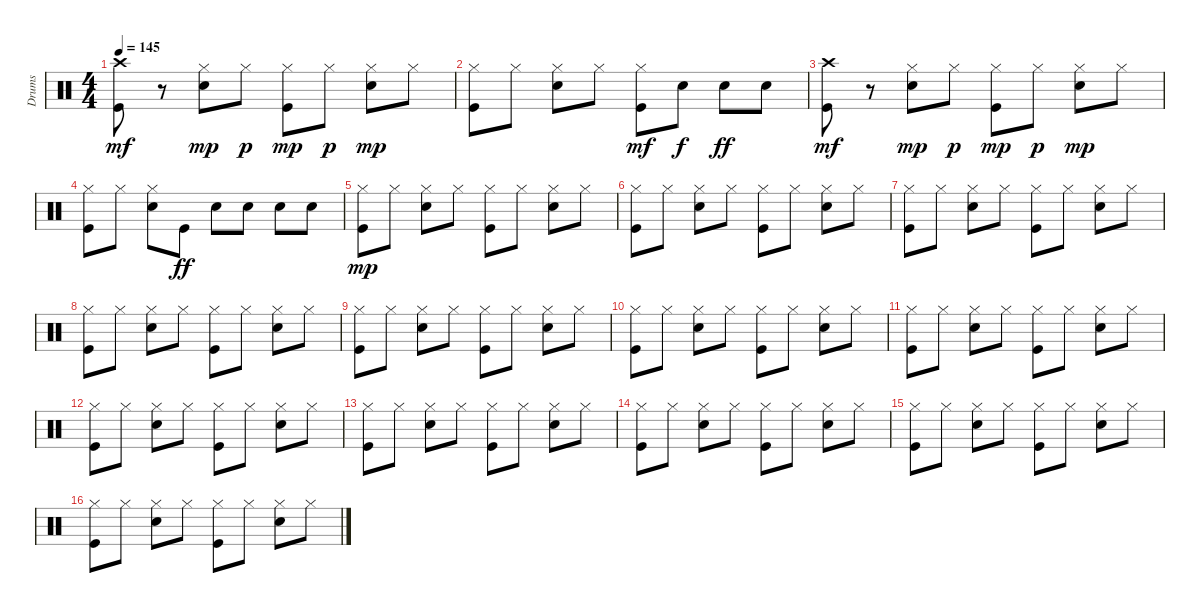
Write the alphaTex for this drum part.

\track ("Drums" "Drums") {instrument percussion}
\staff {score}
\articulation defaults
\ts (4 4)
\tempo 145
\clef neutral
\ks c
("Kick (hit)" "Crash high (hit)").8{dy mf} r.8 ("Snare (hit) 2" "Hi-Hat (closed)").8{dy mp} "Hi-Hat (closed)".8{dy p} ("Kick (hit)" "Hi-Hat (closed)").8{dy mp} "Hi-Hat (closed)".8{dy p} ("Snare (hit) 2" "Hi-Hat (closed)").8{dy mp} "Hi-Hat (closed)".8 |
("Kick (hit)" "Hi-Hat (closed)").8 "Hi-Hat (closed)".8 ("Snare (hit) 2" "Hi-Hat (closed)").8 "Hi-Hat (closed)".8 ("Kick (hit)" "Hi-Hat (closed)").8{dy mf} "Snare (hit) 2".8{dy f} "Snare (hit) 2".8{dy ff} "Snare (hit) 2".8 |
("Kick (hit)" "Crash high (hit)").8{dy mf} r.8 ("Snare (hit) 2" "Hi-Hat (closed)").8{dy mp} "Hi-Hat (closed)".8{dy p} ("Kick (hit)" "Hi-Hat (closed)").8{dy mp} "Hi-Hat (closed)".8{dy p} ("Snare (hit) 2" "Hi-Hat (closed)").8{dy mp} "Hi-Hat (closed)".8 |
("Kick (hit)" "Hi-Hat (closed)").8 "Hi-Hat (closed)".8 ("Snare (hit) 2" "Hi-Hat (closed)").8 "Kick (hit)".8{dy ff} "Snare (hit) 2".8 "Snare (hit) 2".8 "Snare (hit) 2".8 "Snare (hit) 2".8 |
("Kick (hit)" "Hi-Hat (closed)").8{dy mp} "Hi-Hat (closed)".8 ("Snare (hit) 2" "Hi-Hat (closed)").8 "Hi-Hat (closed)".8 ("Kick (hit)" "Hi-Hat (closed)").8 "Hi-Hat (closed)".8 ("Snare (hit) 2" "Hi-Hat (closed)").8 "Hi-Hat (closed)".8 |
("Kick (hit)" "Hi-Hat (closed)").8 "Hi-Hat (closed)".8 ("Snare (hit) 2" "Hi-Hat (closed)").8 "Hi-Hat (closed)".8 ("Kick (hit)" "Hi-Hat (closed)").8 "Hi-Hat (closed)".8 ("Snare (hit) 2" "Hi-Hat (closed)").8 "Hi-Hat (closed)".8 |
("Kick (hit)" "Hi-Hat (closed)").8 "Hi-Hat (closed)".8 ("Snare (hit) 2" "Hi-Hat (closed)").8 "Hi-Hat (closed)".8 ("Kick (hit)" "Hi-Hat (closed)").8 "Hi-Hat (closed)".8 ("Snare (hit) 2" "Hi-Hat (closed)").8 "Hi-Hat (closed)".8 |
("Kick (hit)" "Hi-Hat (closed)").8 "Hi-Hat (closed)".8 ("Snare (hit) 2" "Hi-Hat (closed)").8 "Hi-Hat (closed)".8 ("Kick (hit)" "Hi-Hat (closed)").8 "Hi-Hat (closed)".8 ("Snare (hit) 2" "Hi-Hat (closed)").8 "Hi-Hat (closed)".8 |
("Kick (hit)" "Hi-Hat (closed)").8 "Hi-Hat (closed)".8 ("Snare (hit) 2" "Hi-Hat (closed)").8 "Hi-Hat (closed)".8 ("Kick (hit)" "Hi-Hat (closed)").8 "Hi-Hat (closed)".8 ("Snare (hit) 2" "Hi-Hat (closed)").8 "Hi-Hat (closed)".8 |
("Kick (hit)" "Hi-Hat (closed)").8 "Hi-Hat (closed)".8 ("Snare (hit) 2" "Hi-Hat (closed)").8 "Hi-Hat (closed)".8 ("Kick (hit)" "Hi-Hat (closed)").8 "Hi-Hat (closed)".8 ("Snare (hit) 2" "Hi-Hat (closed)").8 "Hi-Hat (closed)".8 |
("Kick (hit)" "Hi-Hat (closed)").8 "Hi-Hat (closed)".8 ("Snare (hit) 2" "Hi-Hat (closed)").8 "Hi-Hat (closed)".8 ("Kick (hit)" "Hi-Hat (closed)").8 "Hi-Hat (closed)".8 ("Snare (hit) 2" "Hi-Hat (closed)").8 "Hi-Hat (closed)".8 |
("Kick (hit)" "Hi-Hat (closed)").8 "Hi-Hat (closed)".8 ("Snare (hit) 2" "Hi-Hat (closed)").8 "Hi-Hat (closed)".8 ("Kick (hit)" "Hi-Hat (closed)").8 "Hi-Hat (closed)".8 ("Snare (hit) 2" "Hi-Hat (closed)").8 "Hi-Hat (closed)".8 |
("Kick (hit)" "Hi-Hat (closed)").8 "Hi-Hat (closed)".8 ("Snare (hit) 2" "Hi-Hat (closed)").8 "Hi-Hat (closed)".8 ("Kick (hit)" "Hi-Hat (closed)").8 "Hi-Hat (closed)".8 ("Snare (hit) 2" "Hi-Hat (closed)").8 "Hi-Hat (closed)".8 |
("Kick (hit)" "Hi-Hat (closed)").8 "Hi-Hat (closed)".8 ("Snare (hit) 2" "Hi-Hat (closed)").8 "Hi-Hat (closed)".8 ("Kick (hit)" "Hi-Hat (closed)").8 "Hi-Hat (closed)".8 ("Snare (hit) 2" "Hi-Hat (closed)").8 "Hi-Hat (closed)".8 |
("Kick (hit)" "Hi-Hat (closed)").8 "Hi-Hat (closed)".8 ("Snare (hit) 2" "Hi-Hat (closed)").8 "Hi-Hat (closed)".8 ("Kick (hit)" "Hi-Hat (closed)").8 "Hi-Hat (closed)".8 ("Snare (hit) 2" "Hi-Hat (closed)").8 "Hi-Hat (closed)".8 |
("Kick (hit)" "Hi-Hat (closed)").8 "Hi-Hat (closed)".8 ("Snare (hit) 2" "Hi-Hat (closed)").8 "Hi-Hat (closed)".8 ("Kick (hit)" "Hi-Hat (closed)").8 "Hi-Hat (closed)".8 ("Snare (hit) 2" "Hi-Hat (closed)").8 "Hi-Hat (closed)".8
